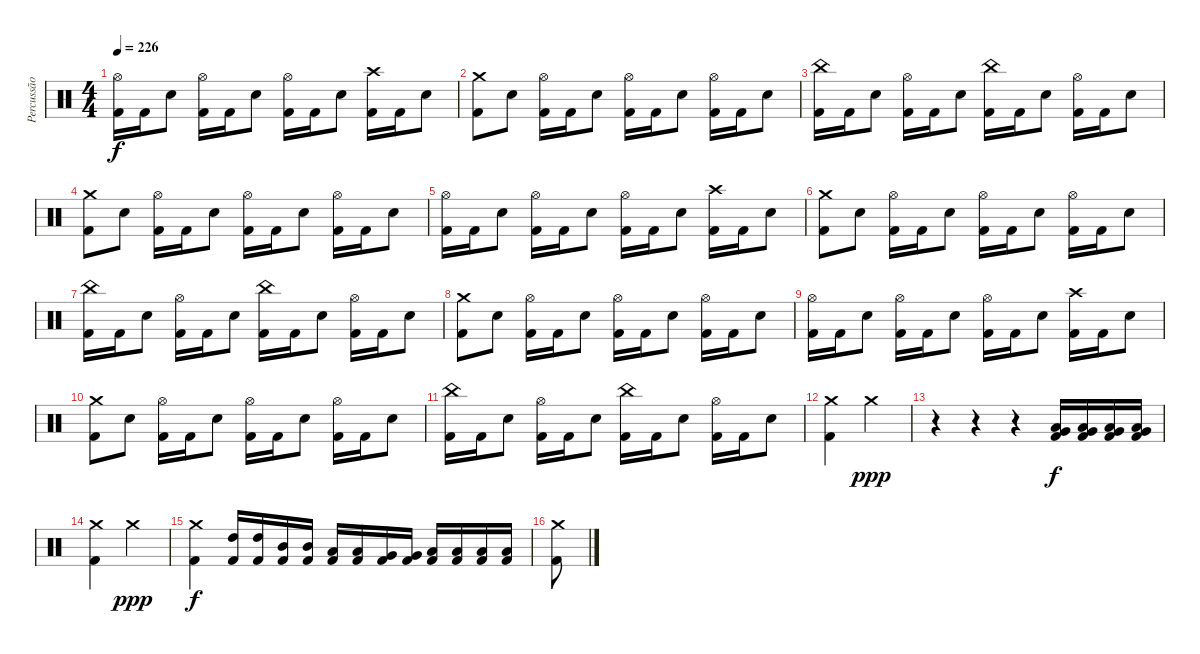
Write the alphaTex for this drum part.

\track ("Percussão" "Percussão") {instrument percussion}
\staff {score}
\articulation defaults
\ts (4 4)
\tempo 226
\clef neutral
\ks c
("Hi-Hat (open)" "Kick (hit) 2").16{dy f} "Kick (hit) 2".16 "Electric Snare (hit)".8 ("Hi-Hat (open)" "Kick (hit) 2").16 "Kick (hit) 2".16 "Electric Snare (hit)".8 ("Hi-Hat (open)" "Kick (hit) 2").16 "Kick (hit) 2".16 "Electric Snare (hit)".8 ("Crash high (hit)" "Kick (hit) 2").16 "Kick (hit) 2".16 "Electric Snare (hit)".8 |
("Crash medium (hit)" "Kick (hit) 2").8 "Electric Snare (hit)".8 ("Hi-Hat (open)" "Kick (hit) 2").16 "Kick (hit) 2".16 "Electric Snare (hit)".8 ("Hi-Hat (open)" "Kick (hit) 2").16 "Kick (hit) 2".16 "Electric Snare (hit)".8 ("Hi-Hat (open)" "Kick (hit) 2").16 "Kick (hit) 2".16 "Electric Snare (hit)".8 |
("China (hit)" "Kick (hit) 2").16 "Kick (hit) 2".16 "Electric Snare (hit)".8 ("Hi-Hat (open)" "Kick (hit) 2").16 "Kick (hit) 2".16 "Electric Snare (hit)".8 ("China (hit)" "Kick (hit) 2").16 "Kick (hit) 2".16 "Electric Snare (hit)".8 ("Hi-Hat (open)" "Kick (hit) 2").16 "Kick (hit) 2".16 "Electric Snare (hit)".8 |
("Crash medium (hit)" "Kick (hit) 2").8 "Electric Snare (hit)".8 ("Hi-Hat (open)" "Kick (hit) 2").16 "Kick (hit) 2".16 "Electric Snare (hit)".8 ("Hi-Hat (open)" "Kick (hit) 2").16 "Kick (hit) 2".16 "Electric Snare (hit)".8 ("Hi-Hat (open)" "Kick (hit) 2").16 "Kick (hit) 2".16 "Electric Snare (hit)".8 |
("Hi-Hat (open)" "Kick (hit) 2").16 "Kick (hit) 2".16 "Electric Snare (hit)".8 ("Hi-Hat (open)" "Kick (hit) 2").16 "Kick (hit) 2".16 "Electric Snare (hit)".8 ("Hi-Hat (open)" "Kick (hit) 2").16 "Kick (hit) 2".16 "Electric Snare (hit)".8 ("Crash high (hit)" "Kick (hit) 2").16 "Kick (hit) 2".16 "Electric Snare (hit)".8 |
("Crash medium (hit)" "Kick (hit) 2").8 "Electric Snare (hit)".8 ("Hi-Hat (open)" "Kick (hit) 2").16 "Kick (hit) 2".16 "Electric Snare (hit)".8 ("Hi-Hat (open)" "Kick (hit) 2").16 "Kick (hit) 2".16 "Electric Snare (hit)".8 ("Hi-Hat (open)" "Kick (hit) 2").16 "Kick (hit) 2".16 "Electric Snare (hit)".8 |
("China (hit)" "Kick (hit) 2").16 "Kick (hit) 2".16 "Electric Snare (hit)".8 ("Hi-Hat (open)" "Kick (hit) 2").16 "Kick (hit) 2".16 "Electric Snare (hit)".8 ("China (hit)" "Kick (hit) 2").16 "Kick (hit) 2".16 "Electric Snare (hit)".8 ("Hi-Hat (open)" "Kick (hit) 2").16 "Kick (hit) 2".16 "Electric Snare (hit)".8 |
("Crash medium (hit)" "Kick (hit) 2").8 "Electric Snare (hit)".8 ("Hi-Hat (open)" "Kick (hit) 2").16 "Kick (hit) 2".16 "Electric Snare (hit)".8 ("Hi-Hat (open)" "Kick (hit) 2").16 "Kick (hit) 2".16 "Electric Snare (hit)".8 ("Hi-Hat (open)" "Kick (hit) 2").16 "Kick (hit) 2".16 "Electric Snare (hit)".8 |
("Hi-Hat (open)" "Kick (hit) 2").16 "Kick (hit) 2".16 "Electric Snare (hit)".8 ("Hi-Hat (open)" "Kick (hit) 2").16 "Kick (hit) 2".16 "Electric Snare (hit)".8 ("Hi-Hat (open)" "Kick (hit) 2").16 "Kick (hit) 2".16 "Electric Snare (hit)".8 ("Crash high (hit)" "Kick (hit) 2").16 "Kick (hit) 2".16 "Electric Snare (hit)".8 |
("Crash medium (hit)" "Kick (hit) 2").8 "Electric Snare (hit)".8 ("Hi-Hat (open)" "Kick (hit) 2").16 "Kick (hit) 2".16 "Electric Snare (hit)".8 ("Hi-Hat (open)" "Kick (hit) 2").16 "Kick (hit) 2".16 "Electric Snare (hit)".8 ("Hi-Hat (open)" "Kick (hit) 2").16 "Kick (hit) 2".16 "Electric Snare (hit)".8 |
("China (hit)" "Kick (hit) 2").16 "Kick (hit) 2".16 "Electric Snare (hit)".8 ("Hi-Hat (open)" "Kick (hit) 2").16 "Kick (hit) 2".16 "Electric Snare (hit)".8 ("China (hit)" "Kick (hit) 2").16 "Kick (hit) 2".16 "Electric Snare (hit)".8 ("Hi-Hat (open)" "Kick (hit) 2").16 "Kick (hit) 2".16 "Electric Snare (hit)".8 |
("Crash medium (hit)" "Kick (hit) 2").4 "Crash medium (hit)".4{dy ppp} |
r.4 r.4 r.4 ("Very Low Tom (hit)" "Low Floor Tom (hit)" "Kick (hit) 2").16{dy f} ("Very Low Tom (hit)" "Low Floor Tom (hit)" "Kick (hit) 2").16 ("Very Low Tom (hit)" "Low Floor Tom (hit)" "Kick (hit) 2").16 ("Very Low Tom (hit)" "Low Floor Tom (hit)" "Kick (hit) 2").16 |
("Crash medium (hit)" "Kick (hit) 2").4 "Crash medium (hit)".4{dy ppp} |
("Crash medium (hit)" "Kick (hit) 2").4{dy f} ("High Tom (hit)" "Kick (hit) 2").16 ("High Tom (hit)" "Kick (hit) 2").16 ("Mid Tom (hit)" "Kick (hit) 2").16 ("Mid Tom (hit)" "Kick (hit) 2").16 ("Low Tom (hit)" "Kick (hit) 2").16 ("Low Tom (hit)" "Kick (hit) 2").16 ("Very Low Tom (hit)" "Kick (hit) 2").16 ("Very Low Tom (hit)" "Kick (hit) 2").16 ("Low Tom (hit)" "Kick (hit) 2").16 ("Low Tom (hit)" "Kick (hit) 2").16 ("Low Tom (hit)" "Kick (hit) 2").16 ("Low Tom (hit)" "Kick (hit) 2").16 |
("Crash medium (hit)" "Kick (hit) 2").8
